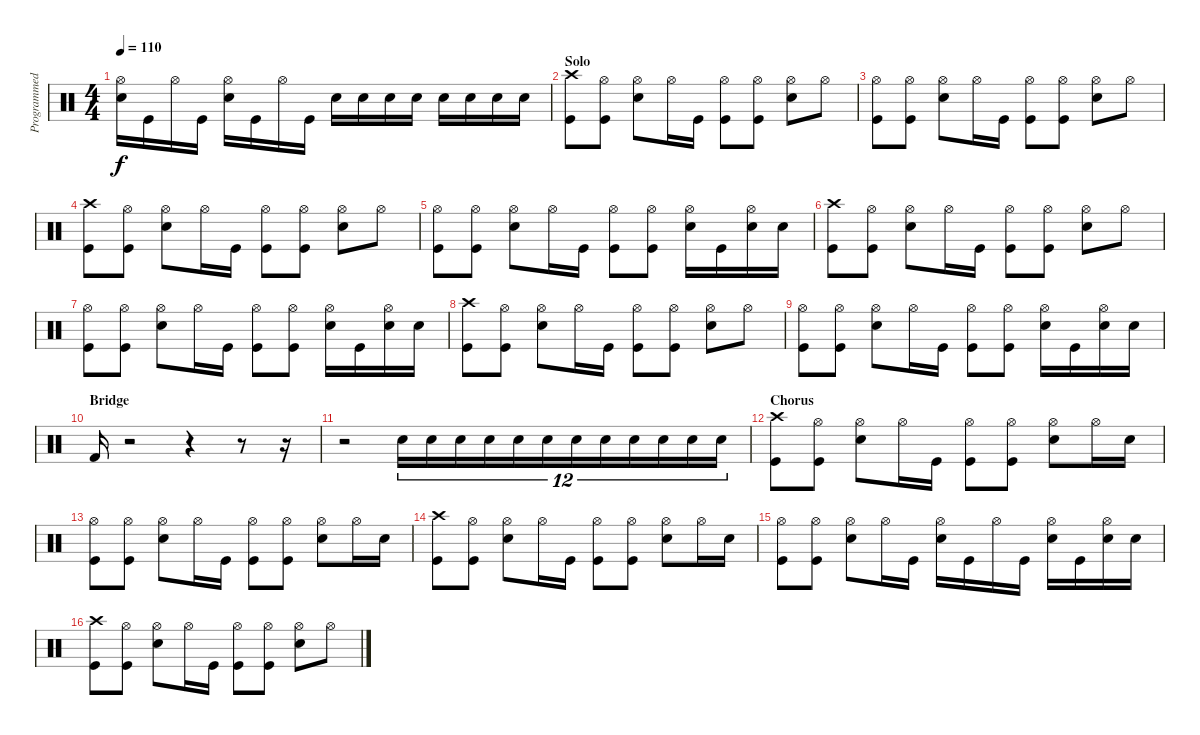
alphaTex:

\track ("Programmed Drums" "Programmed") {instrument percussion}
\staff {score}
\articulation defaults
\ts (4 4)
\tempo 110
\clef neutral
\ks c
("Hi-Hat (open)" "Electric Snare (hit)").16{dy f} "Kick (hit)".16 "Hi-Hat (open)".16 "Kick (hit)".16 ("Hi-Hat (open)" "Electric Snare (hit)").16 "Kick (hit)".16 "Hi-Hat (open)".16 "Kick (hit)".16 "Electric Snare (hit)".16 "Electric Snare (hit)".16 "Electric Snare (hit)".16 "Electric Snare (hit)".16 "Electric Snare (hit)".16 "Electric Snare (hit)".16 "Electric Snare (hit)".16 "Electric Snare (hit)".16 |
\section ("" "Solo")
("Crash high (hit)" "Kick (hit)").8 ("Hi-Hat (open)" "Kick (hit)").8 ("Hi-Hat (open)" "Electric Snare (hit)").8 "Hi-Hat (open)".16 "Kick (hit)".16 ("Hi-Hat (open)" "Kick (hit)").8 ("Hi-Hat (open)" "Kick (hit)").8 ("Hi-Hat (open)" "Electric Snare (hit)").8 "Hi-Hat (open)".8 |
("Hi-Hat (open)" "Kick (hit)").8 ("Hi-Hat (open)" "Kick (hit)").8 ("Hi-Hat (open)" "Electric Snare (hit)").8 "Hi-Hat (open)".16 "Kick (hit)".16 ("Hi-Hat (open)" "Kick (hit)").8 ("Hi-Hat (open)" "Kick (hit)").8 ("Hi-Hat (open)" "Electric Snare (hit)").8 "Hi-Hat (open)".8 |
("Crash high (hit)" "Kick (hit)").8 ("Hi-Hat (open)" "Kick (hit)").8 ("Hi-Hat (open)" "Electric Snare (hit)").8 "Hi-Hat (open)".16 "Kick (hit)".16 ("Hi-Hat (open)" "Kick (hit)").8 ("Hi-Hat (open)" "Kick (hit)").8 ("Hi-Hat (open)" "Electric Snare (hit)").8 "Hi-Hat (open)".8 |
("Hi-Hat (open)" "Kick (hit)").8 ("Hi-Hat (open)" "Kick (hit)").8 ("Hi-Hat (open)" "Electric Snare (hit)").8 "Hi-Hat (open)".16 "Kick (hit)".16 ("Hi-Hat (open)" "Kick (hit)").8 ("Hi-Hat (open)" "Kick (hit)").8 ("Hi-Hat (open)" "Electric Snare (hit)").16 "Kick (hit)".16 ("Hi-Hat (open)" "Electric Snare (hit)").16 "Electric Snare (hit)".16 |
("Crash high (hit)" "Kick (hit)").8 ("Hi-Hat (open)" "Kick (hit)").8 ("Hi-Hat (open)" "Electric Snare (hit)").8 "Hi-Hat (open)".16 "Kick (hit)".16 ("Hi-Hat (open)" "Kick (hit)").8 ("Hi-Hat (open)" "Kick (hit)").8 ("Hi-Hat (open)" "Electric Snare (hit)").8 "Hi-Hat (open)".8 |
("Hi-Hat (open)" "Kick (hit)").8 ("Hi-Hat (open)" "Kick (hit)").8 ("Hi-Hat (open)" "Electric Snare (hit)").8 "Hi-Hat (open)".16 "Kick (hit)".16 ("Hi-Hat (open)" "Kick (hit)").8 ("Hi-Hat (open)" "Kick (hit)").8 ("Hi-Hat (open)" "Electric Snare (hit)").16 "Kick (hit)".16 ("Hi-Hat (open)" "Electric Snare (hit)").16 "Electric Snare (hit)".16 |
("Crash high (hit)" "Kick (hit)").8 ("Hi-Hat (open)" "Kick (hit)").8 ("Hi-Hat (open)" "Electric Snare (hit)").8 "Hi-Hat (open)".16 "Kick (hit)".16 ("Hi-Hat (open)" "Kick (hit)").8 ("Hi-Hat (open)" "Kick (hit)").8 ("Hi-Hat (open)" "Electric Snare (hit)").8 "Hi-Hat (open)".8 |
("Hi-Hat (open)" "Kick (hit)").8 ("Hi-Hat (open)" "Kick (hit)").8 ("Hi-Hat (open)" "Electric Snare (hit)").8 "Hi-Hat (open)".16 "Kick (hit)".16 ("Hi-Hat (open)" "Kick (hit)").8 ("Hi-Hat (open)" "Kick (hit)").8 ("Hi-Hat (open)" "Electric Snare (hit)").16 "Kick (hit)".16 ("Hi-Hat (open)" "Electric Snare (hit)").16 "Electric Snare (hit)".16 |
\section ("" "Bridge")
"Kick (hit) 2".16 r.2 r.4 r.8 r.16 |
r.2 "Electric Snare (hit)".16{tu (12 8)} "Electric Snare (hit)".16{tu (12 8)} "Electric Snare (hit)".16{tu (12 8)} "Electric Snare (hit)".16{tu (12 8)} "Electric Snare (hit)".16{tu (12 8)} "Electric Snare (hit)".16{tu (12 8)} "Electric Snare (hit)".16{tu (12 8)} "Electric Snare (hit)".16{tu (12 8)} "Electric Snare (hit)".16{tu (12 8)} "Electric Snare (hit)".16{tu (12 8)} "Electric Snare (hit)".16{tu (12 8)} "Electric Snare (hit)".16{tu (12 8)} |
\section ("" "Chorus")
("Crash high (hit)" "Kick (hit)").8 ("Hi-Hat (open)" "Kick (hit)").8 ("Hi-Hat (open)" "Electric Snare (hit)").8 "Hi-Hat (open)".16 "Kick (hit)".16 ("Hi-Hat (open)" "Kick (hit)").8 ("Hi-Hat (open)" "Kick (hit)").8 ("Hi-Hat (open)" "Electric Snare (hit)").8 "Hi-Hat (open)".16 "Electric Snare (hit)".16 |
("Hi-Hat (open)" "Kick (hit)").8 ("Hi-Hat (open)" "Kick (hit)").8 ("Hi-Hat (open)" "Electric Snare (hit)").8 "Hi-Hat (open)".16 "Kick (hit)".16 ("Hi-Hat (open)" "Kick (hit)").8 ("Hi-Hat (open)" "Kick (hit)").8 ("Hi-Hat (open)" "Electric Snare (hit)").8 "Hi-Hat (open)".16 "Electric Snare (hit)".16 |
("Crash high (hit)" "Kick (hit)").8 ("Hi-Hat (open)" "Kick (hit)").8 ("Hi-Hat (open)" "Electric Snare (hit)").8 "Hi-Hat (open)".16 "Kick (hit)".16 ("Hi-Hat (open)" "Kick (hit)").8 ("Hi-Hat (open)" "Kick (hit)").8 ("Hi-Hat (open)" "Electric Snare (hit)").8 "Hi-Hat (open)".16 "Electric Snare (hit)".16 |
("Hi-Hat (open)" "Kick (hit)").8 ("Hi-Hat (open)" "Kick (hit)").8 ("Hi-Hat (open)" "Electric Snare (hit)").8 "Hi-Hat (open)".16 "Kick (hit)".16 ("Hi-Hat (open)" "Electric Snare (hit)").16 "Kick (hit)".16 "Hi-Hat (open)".16 "Kick (hit)".16 ("Hi-Hat (open)" "Electric Snare (hit)").16 "Kick (hit)".16 ("Hi-Hat (open)" "Electric Snare (hit)").16 "Electric Snare (hit)".16 |
("Crash high (hit)" "Kick (hit)").8 ("Hi-Hat (open)" "Kick (hit)").8 ("Hi-Hat (open)" "Electric Snare (hit)").8 "Hi-Hat (open)".16 "Kick (hit)".16 ("Hi-Hat (open)" "Kick (hit)").8 ("Hi-Hat (open)" "Kick (hit)").8 ("Hi-Hat (open)" "Electric Snare (hit)").8 "Hi-Hat (open)".8
